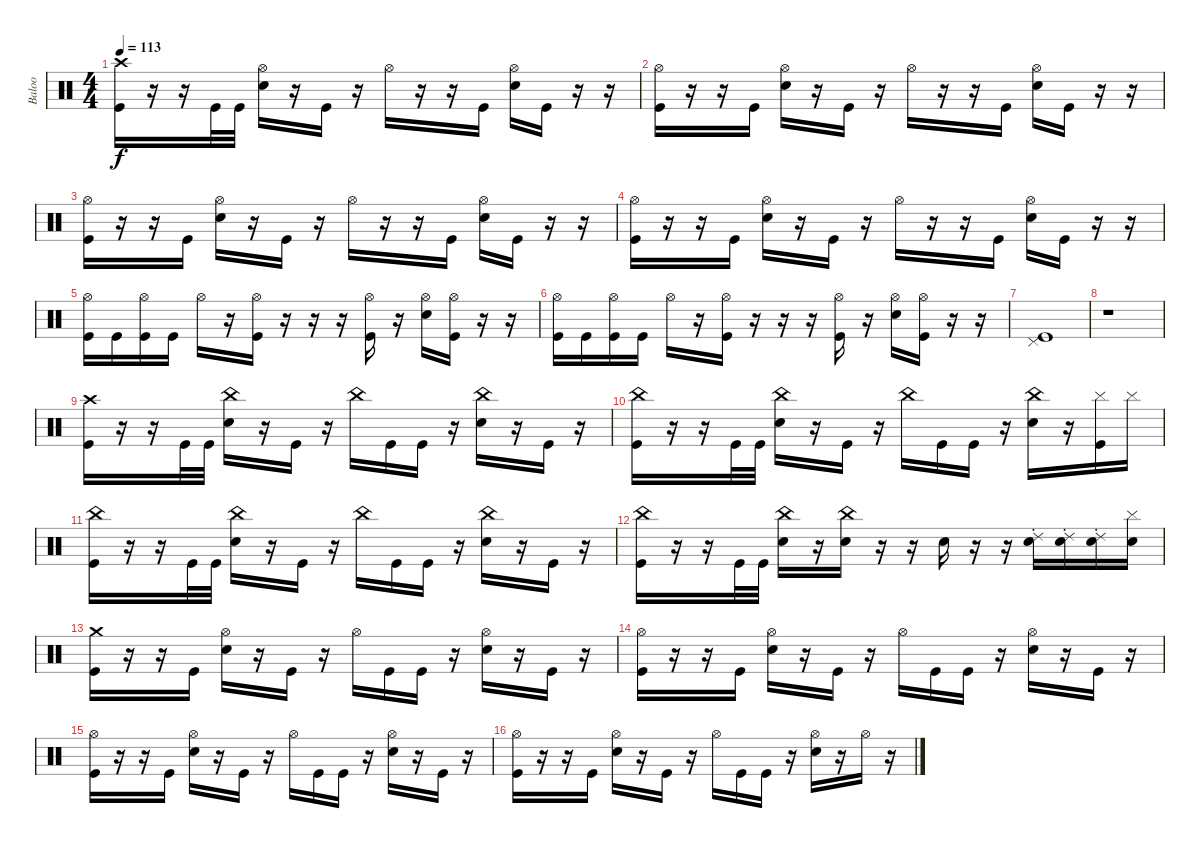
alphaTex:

\track ("Baloo" "Baloo") {instrument percussion}
\staff {score}
\articulation defaults
\ts (4 4)
\tempo 113
\clef neutral
\ks c
("Crash high (hit)" "Kick (hit)").16{dy f} r.16 r.16 "Kick (hit)".32 "Kick (hit)".32 ("Hi-Hat (open)" "Electric Snare (hit)").16 r.16 "Kick (hit)".16 r.16 "Hi-Hat (open)".16 r.16 r.16 "Kick (hit)".16 ("Hi-Hat (open)" "Electric Snare (hit)").16 "Kick (hit)".16 r.16 r.16 |
("Hi-Hat (open)" "Kick (hit)").16 r.16 r.16 "Kick (hit)".16 ("Hi-Hat (open)" "Electric Snare (hit)").16 r.16 "Kick (hit)".16 r.16 "Hi-Hat (open)".16 r.16 r.16 "Kick (hit)".16 ("Hi-Hat (open)" "Electric Snare (hit)").16 "Kick (hit)".16 r.16 r.16 |
("Hi-Hat (open)" "Kick (hit)").16 r.16 r.16 "Kick (hit)".16 ("Hi-Hat (open)" "Electric Snare (hit)").16 r.16 "Kick (hit)".16 r.16 "Hi-Hat (open)".16 r.16 r.16 "Kick (hit)".16 ("Hi-Hat (open)" "Electric Snare (hit)").16 "Kick (hit)".16 r.16 r.16 |
("Hi-Hat (open)" "Kick (hit)").16 r.16 r.16 "Kick (hit)".16 ("Hi-Hat (open)" "Electric Snare (hit)").16 r.16 "Kick (hit)".16 r.16 "Hi-Hat (open)".16 r.16 r.16 "Kick (hit)".16 ("Hi-Hat (open)" "Electric Snare (hit)").16 "Kick (hit)".16 r.16 r.16 |
("Hi-Hat (open)" "Kick (hit)").16 "Kick (hit)".16 ("Hi-Hat (open)" "Kick (hit)").16 "Kick (hit)".16 "Hi-Hat (open)".16 r.16 ("Hi-Hat (open)" "Kick (hit)").16 r.16 r.16 r.16 ("Hi-Hat (open)" "Kick (hit)").16 r.16 ("Hi-Hat (open)" "Electric Snare (hit)").16 ("Hi-Hat (open)" "Kick (hit)").16 r.16 r.16 |
("Hi-Hat (open)" "Kick (hit)").16 "Kick (hit)".16 ("Hi-Hat (open)" "Kick (hit)").16 "Kick (hit)".16 "Hi-Hat (open)".16 r.16 ("Hi-Hat (open)" "Kick (hit)").16 r.16 r.16 r.16 ("Hi-Hat (open)" "Kick (hit)").16 r.16 ("Hi-Hat (open)" "Electric Snare (hit)").16 ("Hi-Hat (open)" "Kick (hit)").16 r.16 r.16 |
("Pedal Hi-Hat (hit)" "Kick (hit)").1 |
r.1 |
("Crash high (hit)" "Kick (hit)").16 r.16 r.16 "Kick (hit)".32 "Kick (hit)".32 ("China (hit)" "Electric Snare (hit)").16 r.16 "Kick (hit)".16 r.16 "China (hit)".16 "Kick (hit)".16 "Kick (hit)".16 r.16 ("China (hit)" "Electric Snare (hit)").16 r.16 "Kick (hit)".16 r.16 |
("China (hit)" "Kick (hit)").16 r.16 r.16 "Kick (hit)".32 "Kick (hit)".32 ("China (hit)" "Electric Snare (hit)").16 r.16 "Kick (hit)".16 r.16 "China (hit)".16 "Kick (hit)".16 "Kick (hit)".16 r.16 ("China (hit)" "Electric Snare (hit)").16 r.16 ("Cymbal (hit)" "Kick (hit)").16 "Cymbal (hit)".16 |
("China (hit)" "Kick (hit)").16 r.16 r.16 "Kick (hit)".32 "Kick (hit)".32 ("China (hit)" "Electric Snare (hit)").16 r.16 "Kick (hit)".16 r.16 "China (hit)".16 "Kick (hit)".16 "Kick (hit)".16 r.16 ("China (hit)" "Electric Snare (hit)").16 r.16 "Kick (hit)".16 r.16 |
("China (hit)" "Kick (hit)").16 r.16 r.16 "Kick (hit)".32 "Kick (hit)".32 ("China (hit)" "Electric Snare (hit)").16 r.16 ("China (hit)" "Electric Snare (hit)").16 r.16 r.16 "Electric Snare (hit)".16 r.16 r.16 ("Ride (choke) 2" "Electric Snare (hit)").16 ("Ride (choke) 2" "Electric Snare (hit)").16 ("Ride (choke) 2" "Electric Snare (hit)").16 ("Cymbal (hit)" "Electric Snare (hit)").16 |
("Crash medium (hit)" "Kick (hit)").16 r.16 r.16 "Kick (hit)".16 ("Hi-Hat (open)" "Electric Snare (hit)").16 r.16 "Kick (hit)".16 r.16 "Hi-Hat (open)".16 "Kick (hit)".16 "Kick (hit)".16 r.16 ("Hi-Hat (open)" "Electric Snare (hit)").16 r.16 "Kick (hit)".16 r.16 |
("Hi-Hat (open)" "Kick (hit)").16 r.16 r.16 "Kick (hit)".16 ("Hi-Hat (open)" "Electric Snare (hit)").16 r.16 "Kick (hit)".16 r.16 "Hi-Hat (open)".16 "Kick (hit)".16 "Kick (hit)".16 r.16 ("Hi-Hat (open)" "Electric Snare (hit)").16 r.16 "Kick (hit)".16 r.16 |
("Hi-Hat (open)" "Kick (hit)").16 r.16 r.16 "Kick (hit)".16 ("Hi-Hat (open)" "Electric Snare (hit)").16 r.16 "Kick (hit)".16 r.16 "Hi-Hat (open)".16 "Kick (hit)".16 "Kick (hit)".16 r.16 ("Hi-Hat (open)" "Electric Snare (hit)").16 r.16 "Kick (hit)".16 r.16 |
("Hi-Hat (open)" "Kick (hit)").16 r.16 r.16 "Kick (hit)".16 ("Hi-Hat (open)" "Electric Snare (hit)").16 r.16 "Kick (hit)".16 r.16 "Hi-Hat (open)".16 "Kick (hit)".16 "Kick (hit)".16 r.16 ("Hi-Hat (open)" "Electric Snare (hit)").16 r.16 "Hi-Hat (open)".16 r.16
